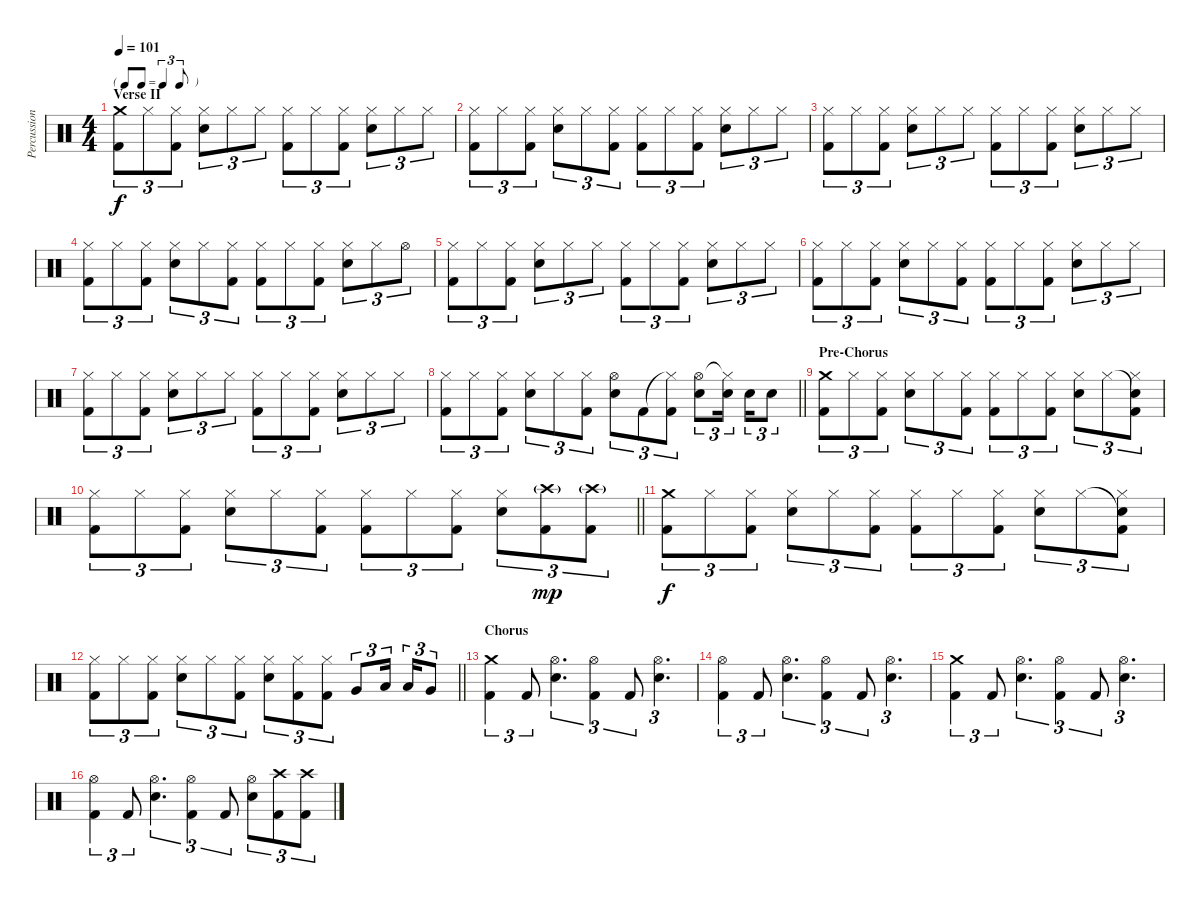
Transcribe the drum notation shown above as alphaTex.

\track ("Percussion" "Percussion") {instrument percussion}
\staff {score}
\articulation defaults
\ts (4 4)
\tf triplet8th
\section ("" "Verse II")
\tempo 101
\clef neutral
\ks c
("Crash medium (hit)" "Kick (hit) 2").8{tu (3 2) dy f} "Hi-Hat (closed)".8{tu (3 2)} ("Hi-Hat (closed)" "Kick (hit) 2").8{tu (3 2)} ("Hi-Hat (closed)" "Electric Snare (hit)").8{tu (3 2)} "Hi-Hat (closed)".8{tu (3 2)} "Hi-Hat (closed)".8{tu (3 2)} ("Hi-Hat (closed)" "Kick (hit) 2").8{tu (3 2)} "Hi-Hat (closed)".8{tu (3 2)} ("Hi-Hat (closed)" "Kick (hit) 2").8{tu (3 2)} ("Hi-Hat (closed)" "Electric Snare (hit)").8{tu (3 2)} "Hi-Hat (closed)".8{tu (3 2)} "Hi-Hat (closed)".8{tu (3 2)} |
("Hi-Hat (closed)" "Kick (hit) 2").8{tu (3 2)} "Hi-Hat (closed)".8{tu (3 2)} ("Hi-Hat (closed)" "Kick (hit) 2").8{tu (3 2)} ("Hi-Hat (closed)" "Electric Snare (hit)").8{tu (3 2)} "Hi-Hat (closed)".8{tu (3 2)} ("Hi-Hat (closed)" "Kick (hit) 2").8{tu (3 2)} ("Hi-Hat (closed)" "Kick (hit) 2").8{tu (3 2)} "Hi-Hat (closed)".8{tu (3 2)} ("Hi-Hat (closed)" "Kick (hit) 2").8{tu (3 2)} ("Hi-Hat (closed)" "Electric Snare (hit)").8{tu (3 2)} "Hi-Hat (closed)".8{tu (3 2)} "Hi-Hat (closed)".8{tu (3 2)} |
("Hi-Hat (closed)" "Kick (hit) 2").8{tu (3 2)} "Hi-Hat (closed)".8{tu (3 2)} ("Hi-Hat (closed)" "Kick (hit) 2").8{tu (3 2)} ("Hi-Hat (closed)" "Electric Snare (hit)").8{tu (3 2)} "Hi-Hat (closed)".8{tu (3 2)} "Hi-Hat (closed)".8{tu (3 2)} ("Hi-Hat (closed)" "Kick (hit) 2").8{tu (3 2)} "Hi-Hat (closed)".8{tu (3 2)} ("Hi-Hat (closed)" "Kick (hit) 2").8{tu (3 2)} ("Hi-Hat (closed)" "Electric Snare (hit)").8{tu (3 2)} "Hi-Hat (closed)".8{tu (3 2)} "Hi-Hat (closed)".8{tu (3 2)} |
("Hi-Hat (closed)" "Kick (hit) 2").8{tu (3 2)} "Hi-Hat (closed)".8{tu (3 2)} ("Hi-Hat (closed)" "Kick (hit) 2").8{tu (3 2)} ("Hi-Hat (closed)" "Electric Snare (hit)").8{tu (3 2)} "Hi-Hat (closed)".8{tu (3 2)} ("Hi-Hat (closed)" "Kick (hit) 2").8{tu (3 2)} ("Hi-Hat (closed)" "Kick (hit) 2").8{tu (3 2)} "Hi-Hat (closed)".8{tu (3 2)} ("Hi-Hat (closed)" "Kick (hit) 2").8{tu (3 2)} ("Hi-Hat (closed)" "Electric Snare (hit)").8{tu (3 2)} "Hi-Hat (closed)".8{tu (3 2)} "Hi-Hat (open)".8{tu (3 2)} |
("Hi-Hat (closed)" "Kick (hit) 2").8{tu (3 2)} "Hi-Hat (closed)".8{tu (3 2)} ("Hi-Hat (closed)" "Kick (hit) 2").8{tu (3 2)} ("Hi-Hat (closed)" "Electric Snare (hit)").8{tu (3 2)} "Hi-Hat (closed)".8{tu (3 2)} "Hi-Hat (closed)".8{tu (3 2)} ("Hi-Hat (closed)" "Kick (hit) 2").8{tu (3 2)} "Hi-Hat (closed)".8{tu (3 2)} ("Hi-Hat (closed)" "Kick (hit) 2").8{tu (3 2)} ("Hi-Hat (closed)" "Electric Snare (hit)").8{tu (3 2)} "Hi-Hat (closed)".8{tu (3 2)} "Hi-Hat (closed)".8{tu (3 2)} |
("Hi-Hat (closed)" "Kick (hit) 2").8{tu (3 2)} "Hi-Hat (closed)".8{tu (3 2)} ("Hi-Hat (closed)" "Kick (hit) 2").8{tu (3 2)} ("Hi-Hat (closed)" "Electric Snare (hit)").8{tu (3 2)} "Hi-Hat (closed)".8{tu (3 2)} ("Hi-Hat (closed)" "Kick (hit) 2").8{tu (3 2)} ("Hi-Hat (closed)" "Kick (hit) 2").8{tu (3 2)} "Hi-Hat (closed)".8{tu (3 2)} ("Hi-Hat (closed)" "Kick (hit) 2").8{tu (3 2)} ("Hi-Hat (closed)" "Electric Snare (hit)").8{tu (3 2)} "Hi-Hat (closed)".8{tu (3 2)} "Hi-Hat (closed)".8{tu (3 2)} |
("Hi-Hat (closed)" "Kick (hit) 2").8{tu (3 2)} "Hi-Hat (closed)".8{tu (3 2)} ("Hi-Hat (closed)" "Kick (hit) 2").8{tu (3 2)} ("Hi-Hat (closed)" "Electric Snare (hit)").8{tu (3 2)} "Hi-Hat (closed)".8{tu (3 2)} "Hi-Hat (closed)".8{tu (3 2)} ("Hi-Hat (closed)" "Kick (hit) 2").8{tu (3 2)} "Hi-Hat (closed)".8{tu (3 2)} ("Hi-Hat (closed)" "Kick (hit) 2").8{tu (3 2)} ("Hi-Hat (closed)" "Electric Snare (hit)").8{tu (3 2)} "Hi-Hat (closed)".8{tu (3 2)} "Hi-Hat (closed)".8{tu (3 2)} |
\barLineRight lightlight
("Hi-Hat (closed)" "Kick (hit) 2").8{tu (3 2)} "Hi-Hat (closed)".8{tu (3 2)} ("Hi-Hat (closed)" "Kick (hit) 2").8{tu (3 2)} ("Hi-Hat (closed)" "Electric Snare (hit)").8{tu (3 2)} "Hi-Hat (closed)".8{tu (3 2)} ("Hi-Hat (closed)" "Kick (hit) 2").8{tu (3 2)} ("Hi-Hat (open)" "Electric Snare (hit)").8{tu (3 2)} "Kick (hit) 2".8{tu (3 2)} ("Hi-Hat (closed)"{t} "Kick (hit) 2").8{tu (3 2)} ("Hi-Hat (open)" "Electric Snare (hit)").8{tu (3 2)} ("Hi-Hat (closed)"{t} "Electric Snare (hit)").16{tu (3 2) beam splitsecondary} "Electric Snare (hit)".16{tu (3 2)} "Electric Snare (hit)".8{tu (3 2)} |
\section ("" "Pre-Chorus")
("Crash medium (hit)" "Kick (hit) 2").8{tu (3 2)} "Hi-Hat (closed)".8{tu (3 2)} ("Hi-Hat (closed)" "Kick (hit) 2").8{tu (3 2)} ("Hi-Hat (closed)" "Electric Snare (hit)").8{tu (3 2)} "Hi-Hat (closed)".8{tu (3 2)} ("Hi-Hat (closed)" "Kick (hit) 2").8{tu (3 2)} ("Hi-Hat (closed)" "Kick (hit) 2").8{tu (3 2)} "Hi-Hat (closed)".8{tu (3 2)} ("Hi-Hat (closed)" "Kick (hit) 2").8{tu (3 2)} ("Hi-Hat (closed)" "Electric Snare (hit)").8{tu (3 2)} "Hi-Hat (closed)".8{tu (3 2)} ("Snare (hit)"{t} "Hi-Hat (closed)" "Kick (hit) 2").8{tu (3 2)} |
\barLineRight lightlight
("Hi-Hat (closed)" "Kick (hit) 2").8{tu (3 2)} "Hi-Hat (closed)".8{tu (3 2)} ("Hi-Hat (closed)" "Kick (hit) 2").8{tu (3 2)} ("Hi-Hat (closed)" "Electric Snare (hit)").8{tu (3 2)} "Hi-Hat (closed)".8{tu (3 2)} ("Hi-Hat (closed)" "Kick (hit) 2").8{tu (3 2)} ("Hi-Hat (closed)" "Kick (hit) 2").8{tu (3 2)} "Hi-Hat (closed)".8{tu (3 2)} ("Hi-Hat (closed)" "Kick (hit) 2").8{tu (3 2)} ("Hi-Hat (closed)" "Electric Snare (hit)").8{tu (3 2)} ("Crash high (hit)"{g} "Kick (hit) 2").8{tu (3 2) dy mp} ("Crash high (hit)"{g} "Kick (hit) 2").8{tu (3 2)} |
("Crash medium (hit)" "Kick (hit) 2").8{tu (3 2) dy f} "Hi-Hat (closed)".8{tu (3 2)} ("Hi-Hat (closed)" "Kick (hit) 2").8{tu (3 2)} ("Hi-Hat (closed)" "Electric Snare (hit)").8{tu (3 2)} "Hi-Hat (closed)".8{tu (3 2)} ("Hi-Hat (closed)" "Kick (hit) 2").8{tu (3 2)} ("Hi-Hat (closed)" "Kick (hit) 2").8{tu (3 2)} "Hi-Hat (closed)".8{tu (3 2)} ("Hi-Hat (closed)" "Kick (hit) 2").8{tu (3 2)} ("Hi-Hat (closed)" "Electric Snare (hit)").8{tu (3 2)} "Hi-Hat (closed)".8{tu (3 2)} ("Snare (hit)"{t} "Hi-Hat (closed)" "Kick (hit) 2").8{tu (3 2)} |
\barLineRight lightlight
("Hi-Hat (closed)" "Kick (hit) 2").8{tu (3 2)} "Hi-Hat (closed)".8{tu (3 2)} ("Hi-Hat (closed)" "Kick (hit) 2").8{tu (3 2)} ("Hi-Hat (closed)" "Electric Snare (hit)").8{tu (3 2)} "Hi-Hat (closed)".8{tu (3 2)} ("Hi-Hat (closed)" "Kick (hit) 2").8{tu (3 2)} ("Hi-Hat (closed)" "Electric Snare (hit)").8{tu (3 2)} ("Hi-Hat (closed)" "Kick (hit) 2").8{tu (3 2)} ("Hi-Hat (closed)" "Kick (hit) 2").8{tu (3 2)} "Very Low Tom (hit)".8{tu (3 2)} "Low Tom (hit)".16{tu (3 2) beam splitsecondary} "Low Tom (hit)".16{tu (3 2)} "Very Low Tom (hit)".8{tu (3 2)} |
\section ("" "Chorus")
("Crash medium (hit)" "Kick (hit) 2").4{tu (3 2)} "Kick (hit) 2".8{tu (3 2)} ("Hi-Hat (open)" "Electric Snare (hit)").4{d tu (3 2)} ("Hi-Hat (open)" "Kick (hit) 2").4{tu (3 2)} "Kick (hit) 2".8{tu (3 2)} ("Hi-Hat (open)" "Electric Snare (hit)").4{d tu (3 2)} |
("Hi-Hat (open)" "Kick (hit) 2").4{tu (3 2)} "Kick (hit) 2".8{tu (3 2)} ("Hi-Hat (open)" "Electric Snare (hit)").4{d tu (3 2)} ("Hi-Hat (open)" "Kick (hit) 2").4{tu (3 2)} "Kick (hit) 2".8{tu (3 2)} ("Hi-Hat (open)" "Electric Snare (hit)").4{d tu (3 2)} |
("Crash medium (hit)" "Kick (hit) 2").4{tu (3 2)} "Kick (hit) 2".8{tu (3 2)} ("Hi-Hat (open)" "Electric Snare (hit)").4{d tu (3 2)} ("Hi-Hat (open)" "Kick (hit) 2").4{tu (3 2)} "Kick (hit) 2".8{tu (3 2)} ("Hi-Hat (open)" "Electric Snare (hit)").4{d tu (3 2)} |
("Hi-Hat (open)" "Kick (hit) 2").4{tu (3 2)} "Kick (hit) 2".8{tu (3 2)} ("Hi-Hat (open)" "Electric Snare (hit)").4{d tu (3 2)} ("Hi-Hat (open)" "Kick (hit) 2").4{tu (3 2)} "Kick (hit) 2".8{tu (3 2)} ("Hi-Hat (open)" "Electric Snare (hit)").8{tu (3 2)} ("Crash high (hit)" "Kick (hit) 2").8{tu (3 2)} ("Crash high (hit)" "Kick (hit) 2").8{tu (3 2)}
